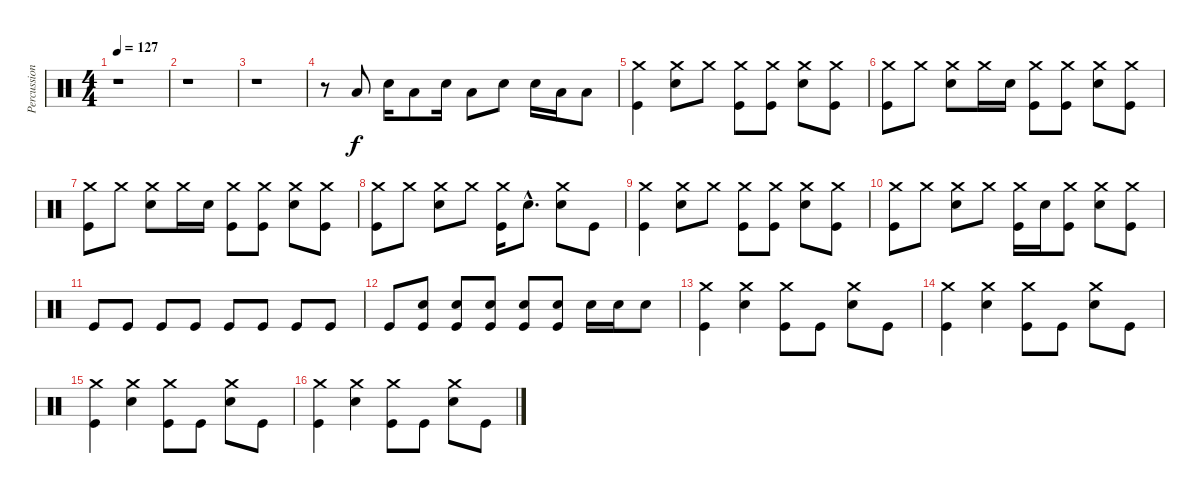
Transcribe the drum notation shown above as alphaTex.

\track ("Percussion" "Percussion") {instrument percussion}
\staff {score}
\articulation defaults
\ts (4 4)
\tempo 127
\clef neutral
\ks c
r.1{dy f} |
r.1 |
r.1 |
r.8 "Low Tom (hit)".8 "Snare (hit) 2".16 "Low Tom (hit)".8 "Snare (hit) 2".16 "Low Tom (hit)".8 "Snare (hit) 2".8 "Snare (hit) 2".16 "Low Tom (hit)".16 "Low Tom (hit)".8 |
("Crash medium (hit)" "Kick (hit)").4 ("Crash medium (hit)" "Snare (hit) 2").8 "Crash medium (hit)".8 ("Crash medium (hit)" "Kick (hit)").8 ("Crash medium (hit)" "Kick (hit)").8 ("Crash medium (hit)" "Snare (hit) 2").8 ("Crash medium (hit)" "Kick (hit)").8 |
("Crash medium (hit)" "Kick (hit)").8 "Crash medium (hit)".8 ("Crash medium (hit)" "Snare (hit) 2").8 "Crash medium (hit)".16 "Snare (hit) 2".16 ("Crash medium (hit)" "Kick (hit)").8 ("Crash medium (hit)" "Kick (hit)").8 ("Crash medium (hit)" "Snare (hit) 2").8 ("Crash medium (hit)" "Kick (hit)").8 |
("Crash medium (hit)" "Kick (hit)").8 "Crash medium (hit)".8 ("Crash medium (hit)" "Snare (hit) 2").8 "Crash medium (hit)".16 "Snare (hit) 2".16 ("Crash medium (hit)" "Kick (hit)").8 ("Crash medium (hit)" "Kick (hit)").8 ("Crash medium (hit)" "Snare (hit) 2").8 ("Crash medium (hit)" "Kick (hit)").8 |
("Crash medium (hit)" "Kick (hit)").8 "Crash medium (hit)".8 ("Crash medium (hit)" "Snare (hit) 2").8 "Crash medium (hit)".8 ("Crash medium (hit)" "Kick (hit)").16 "Snare (hit) 2"{hac}.8{d} ("Crash medium (hit)" "Snare (hit) 2").8 "Kick (hit)".8 |
("Crash medium (hit)" "Kick (hit)").4 ("Crash medium (hit)" "Snare (hit) 2").8 "Crash medium (hit)".8 ("Crash medium (hit)" "Kick (hit)").8 ("Crash medium (hit)" "Kick (hit)").8 ("Crash medium (hit)" "Snare (hit) 2").8 ("Crash medium (hit)" "Kick (hit)").8 |
("Crash medium (hit)" "Kick (hit)").8 "Crash medium (hit)".8 ("Crash medium (hit)" "Snare (hit) 2").8 "Crash medium (hit)".8 ("Crash medium (hit)" "Kick (hit)").16 "Snare (hit) 2".16 ("Crash medium (hit)" "Kick (hit)").8 ("Crash medium (hit)" "Snare (hit) 2").8 ("Crash medium (hit)" "Kick (hit)").8 |
"Kick (hit)".8 "Kick (hit)".8 "Kick (hit)".8 "Kick (hit)".8 "Kick (hit)".8 "Kick (hit)".8 "Kick (hit)".8 "Kick (hit)".8 |
"Kick (hit)".8 ("Snare (hit) 2" "Kick (hit)").8 ("Snare (hit) 2" "Kick (hit)").8 ("Snare (hit) 2" "Kick (hit)").8 ("Snare (hit) 2" "Kick (hit)").8 ("Snare (hit) 2" "Kick (hit)").8 "Snare (hit) 2".16 "Snare (hit) 2".16 "Snare (hit) 2".8 |
("Crash medium (hit)" "Kick (hit)").4 ("Crash medium (hit)" "Snare (hit) 2").4 ("Crash medium (hit)" "Kick (hit)").8 "Kick (hit)".8 ("Crash medium (hit)" "Snare (hit) 2").8 "Kick (hit)".8 |
("Crash medium (hit)" "Kick (hit)").4 ("Crash medium (hit)" "Snare (hit) 2").4 ("Crash medium (hit)" "Kick (hit)").8 "Kick (hit)".8 ("Crash medium (hit)" "Snare (hit) 2").8 "Kick (hit)".8 |
("Crash medium (hit)" "Kick (hit)").4 ("Crash medium (hit)" "Snare (hit) 2").4 ("Crash medium (hit)" "Kick (hit)").8 "Kick (hit)".8 ("Crash medium (hit)" "Snare (hit) 2").8 "Kick (hit)".8 |
("Crash medium (hit)" "Kick (hit)").4 ("Crash medium (hit)" "Snare (hit) 2").4 ("Crash medium (hit)" "Kick (hit)").8 "Kick (hit)".8 ("Crash medium (hit)" "Snare (hit) 2").8 "Kick (hit)".8
